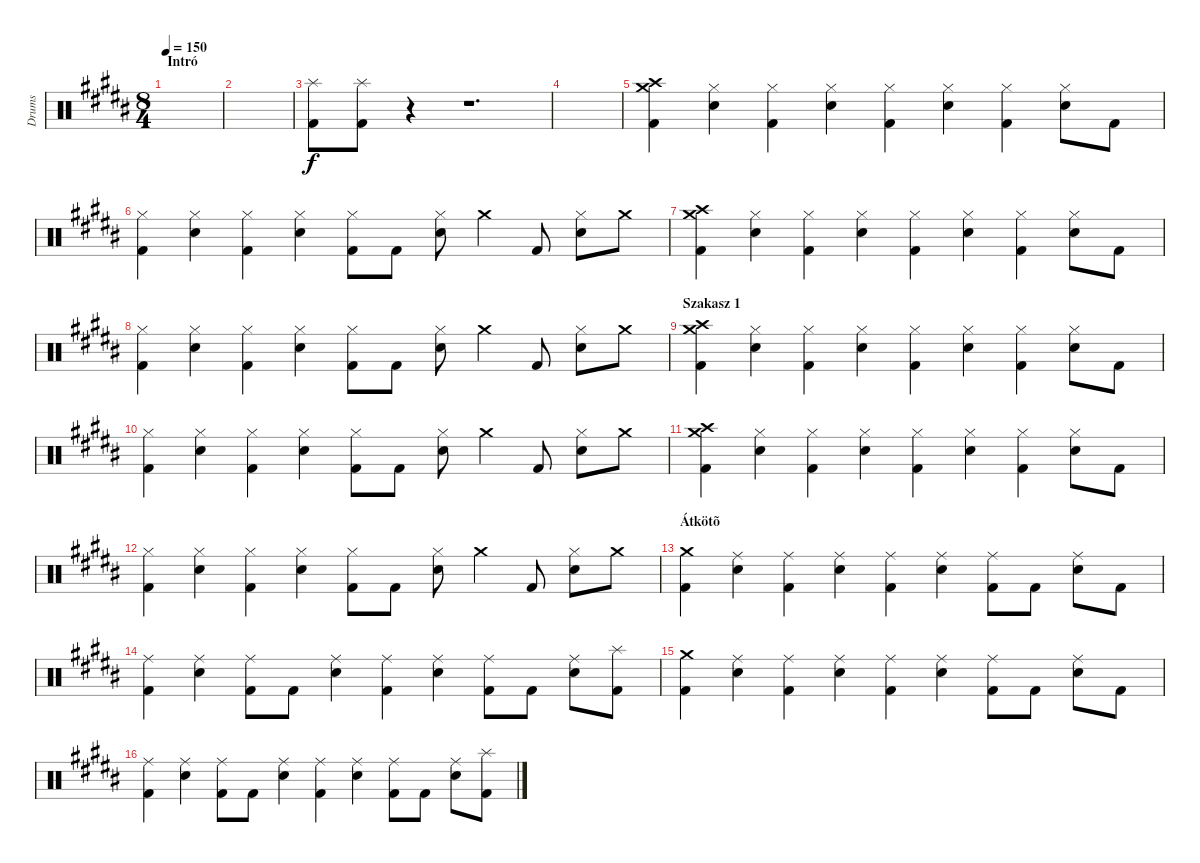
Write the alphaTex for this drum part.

\track ("Drums" "Drums") {instrument percussion}
\staff {score}
\articulation defaults
\ts (8 4)
\section ("" "Intró")
\tempo 150
\clef neutral
\ks g#minor
|
|
("Splash (hit)" "Kick (hit) 2").8 ("Splash (hit)" "Kick (hit) 2").8 r.4 r.1{d} |
|
("Crash medium (hit)" "Crash high (hit)" "Kick (hit) 2").4 ("Hi-Hat (closed)" "Snare (hit) 2").4 ("Hi-Hat (closed)" "Kick (hit) 2").4 ("Hi-Hat (closed)" "Snare (hit) 2").4 ("Hi-Hat (closed)" "Kick (hit) 2").4 ("Hi-Hat (closed)" "Snare (hit) 2").4 ("Hi-Hat (closed)" "Kick (hit) 2").4 ("Hi-Hat (closed)" "Snare (hit) 2").8 "Kick (hit) 2".8 |
("Hi-Hat (closed)" "Kick (hit) 2").4 ("Hi-Hat (closed)" "Snare (hit) 2").4 ("Hi-Hat (closed)" "Kick (hit) 2").4 ("Hi-Hat (closed)" "Snare (hit) 2").4 ("Hi-Hat (closed)" "Kick (hit) 2").8 "Kick (hit) 2".8 ("Hi-Hat (closed)" "Snare (hit) 2").8 "Crash medium (hit)".4 "Kick (hit) 2".8 ("Hi-Hat (closed)" "Snare (hit) 2").8 "Crash medium (hit)".8 |
("Crash medium (hit)" "Crash high (hit)" "Kick (hit) 2").4 ("Hi-Hat (closed)" "Snare (hit) 2").4 ("Hi-Hat (closed)" "Kick (hit) 2").4 ("Hi-Hat (closed)" "Snare (hit) 2").4 ("Hi-Hat (closed)" "Kick (hit) 2").4 ("Hi-Hat (closed)" "Snare (hit) 2").4 ("Hi-Hat (closed)" "Kick (hit) 2").4 ("Hi-Hat (closed)" "Snare (hit) 2").8 "Kick (hit) 2".8 |
("Hi-Hat (closed)" "Kick (hit) 2").4 ("Hi-Hat (closed)" "Snare (hit) 2").4 ("Hi-Hat (closed)" "Kick (hit) 2").4 ("Hi-Hat (closed)" "Snare (hit) 2").4 ("Hi-Hat (closed)" "Kick (hit) 2").8 "Kick (hit) 2".8 ("Hi-Hat (closed)" "Snare (hit) 2").8 "Crash medium (hit)".4 "Kick (hit) 2".8 ("Hi-Hat (closed)" "Snare (hit) 2").8 "Crash medium (hit)".8 |
\section ("" "Szakasz 1")
("Crash medium (hit)" "Crash high (hit)" "Kick (hit) 2").4 ("Hi-Hat (closed)" "Snare (hit) 2").4 ("Hi-Hat (closed)" "Kick (hit) 2").4 ("Hi-Hat (closed)" "Snare (hit) 2").4 ("Hi-Hat (closed)" "Kick (hit) 2").4 ("Hi-Hat (closed)" "Snare (hit) 2").4 ("Hi-Hat (closed)" "Kick (hit) 2").4 ("Hi-Hat (closed)" "Snare (hit) 2").8 "Kick (hit) 2".8 |
("Hi-Hat (closed)" "Kick (hit) 2").4 ("Hi-Hat (closed)" "Snare (hit) 2").4 ("Hi-Hat (closed)" "Kick (hit) 2").4 ("Hi-Hat (closed)" "Snare (hit) 2").4 ("Hi-Hat (closed)" "Kick (hit) 2").8 "Kick (hit) 2".8 ("Hi-Hat (closed)" "Snare (hit) 2").8 "Crash medium (hit)".4 "Kick (hit) 2".8 ("Hi-Hat (closed)" "Snare (hit) 2").8 "Crash medium (hit)".8 |
("Crash medium (hit)" "Crash high (hit)" "Kick (hit) 2").4 ("Hi-Hat (closed)" "Snare (hit) 2").4 ("Hi-Hat (closed)" "Kick (hit) 2").4 ("Hi-Hat (closed)" "Snare (hit) 2").4 ("Hi-Hat (closed)" "Kick (hit) 2").4 ("Hi-Hat (closed)" "Snare (hit) 2").4 ("Hi-Hat (closed)" "Kick (hit) 2").4 ("Hi-Hat (closed)" "Snare (hit) 2").8 "Kick (hit) 2".8 |
("Hi-Hat (closed)" "Kick (hit) 2").4 ("Hi-Hat (closed)" "Snare (hit) 2").4 ("Hi-Hat (closed)" "Kick (hit) 2").4 ("Hi-Hat (closed)" "Snare (hit) 2").4 ("Hi-Hat (closed)" "Kick (hit) 2").8 "Kick (hit) 2".8 ("Hi-Hat (closed)" "Snare (hit) 2").8 "Crash medium (hit)".4 "Kick (hit) 2".8 ("Hi-Hat (closed)" "Snare (hit) 2").8 "Crash medium (hit)".8 |
\section ("" "Átkötõ")
("Crash medium (hit)" "Kick (hit) 2").4 ("Ride (middle)" "Snare (hit) 2").4 ("Ride (middle)" "Kick (hit) 2").4 ("Ride (middle)" "Snare (hit) 2").4 ("Ride (middle)" "Kick (hit) 2").4 ("Ride (middle)" "Snare (hit) 2").4 ("Ride (middle)" "Kick (hit) 2").8 "Kick (hit) 2".8 ("Ride (middle)" "Snare (hit) 2").8 "Kick (hit) 2".8 |
("Ride (middle)" "Kick (hit) 2").4 ("Ride (middle)" "Snare (hit) 2").4 ("Ride (middle)" "Kick (hit) 2").8 "Kick (hit) 2".8 ("Ride (middle)" "Snare (hit) 2").4 ("Ride (middle)" "Kick (hit) 2").4 ("Ride (middle)" "Snare (hit) 2").4 ("Ride (middle)" "Kick (hit) 2").8 "Kick (hit) 2".8 ("Ride (middle)" "Snare (hit) 2").8 ("Splash (hit)" "Kick (hit) 2").8 |
("Crash medium (hit)" "Kick (hit) 2").4 ("Ride (middle)" "Snare (hit) 2").4 ("Ride (middle)" "Kick (hit) 2").4 ("Ride (middle)" "Snare (hit) 2").4 ("Ride (middle)" "Kick (hit) 2").4 ("Ride (middle)" "Snare (hit) 2").4 ("Ride (middle)" "Kick (hit) 2").8 "Kick (hit) 2".8 ("Ride (middle)" "Snare (hit) 2").8 "Kick (hit) 2".8 |
("Ride (middle)" "Kick (hit) 2").4 ("Ride (middle)" "Snare (hit) 2").4 ("Ride (middle)" "Kick (hit) 2").8 "Kick (hit) 2".8 ("Ride (middle)" "Snare (hit) 2").4 ("Ride (middle)" "Kick (hit) 2").4 ("Ride (middle)" "Snare (hit) 2").4 ("Ride (middle)" "Kick (hit) 2").8 "Kick (hit) 2".8 ("Ride (middle)" "Snare (hit) 2").8 ("Splash (hit)" "Kick (hit) 2").8
